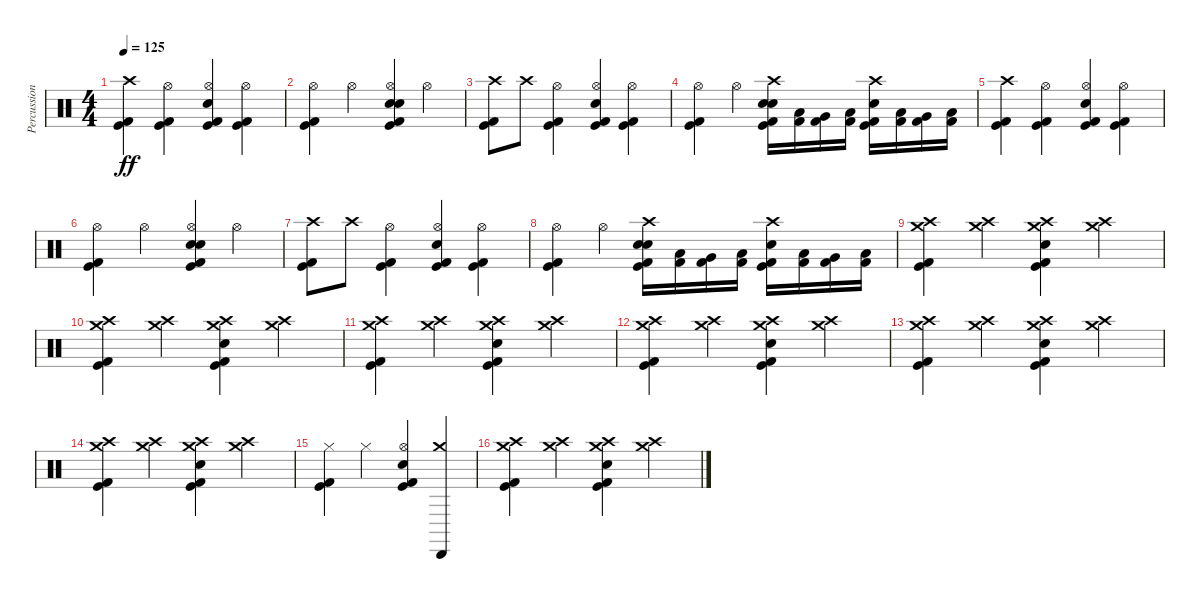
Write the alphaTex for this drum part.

\track ("Percussion" "Percussion") {instrument percussion}
\staff {score}
\articulation defaults
\ts (4 4)
\tempo 125
\clef neutral
\ks c
("Crash high (hit)" "Kick (hit) 2" "Kick (hit)").4{dy ff} ("Hi-Hat (open)" "Kick (hit) 2" "Kick (hit)").4 ("Electric Snare (hit)" "Hi-Hat (open)" "Kick (hit) 2" "Kick (hit)").4 ("Hi-Hat (open)" "Kick (hit) 2" "Kick (hit)").4 |
("Hi-Hat (open)" "Kick (hit) 2" "Kick (hit)").4 "Hi-Hat (open)".4 ("Electric Snare (hit)" "Electric Snare (hit)" "Hi-Hat (open)" "Kick (hit) 2" "Kick (hit)").4 "Hi-Hat (open)".4 |
("Crash high (hit)" "Kick (hit) 2" "Kick (hit)").8 "Crash high (hit)".8 ("Hi-Hat (open)" "Kick (hit) 2" "Kick (hit)").4 ("Electric Snare (hit)" "Hi-Hat (open)" "Kick (hit) 2" "Kick (hit)").4 ("Hi-Hat (open)" "Kick (hit) 2" "Kick (hit)").4 |
("Hi-Hat (open)" "Kick (hit) 2" "Kick (hit)").4 "Hi-Hat (open)".4 ("Electric Snare (hit)" "Electric Snare (hit)" "Crash high (hit)" "Kick (hit) 2" "Kick (hit)").16 ("Low Tom (hit)" "Kick (hit) 2").16 ("Very Low Tom (hit)" "Kick (hit) 2").16 ("Low Floor Tom (hit)" "Kick (hit) 2").16 ("Crash high (hit)" "Electric Snare (hit)" "Kick (hit) 2" "Kick (hit)").16 ("Low Tom (hit)" "Kick (hit) 2").16 ("Very Low Tom (hit)" "Kick (hit) 2").16 ("Low Floor Tom (hit)" "Kick (hit) 2").16 |
("Crash high (hit)" "Kick (hit) 2" "Kick (hit)").4 ("Hi-Hat (open)" "Kick (hit) 2" "Kick (hit)").4 ("Electric Snare (hit)" "Hi-Hat (open)" "Kick (hit) 2" "Kick (hit)").4 ("Hi-Hat (open)" "Kick (hit) 2" "Kick (hit)").4 |
("Hi-Hat (open)" "Kick (hit) 2" "Kick (hit)").4 "Hi-Hat (open)".4 ("Electric Snare (hit)" "Electric Snare (hit)" "Hi-Hat (open)" "Kick (hit) 2" "Kick (hit)").4 "Hi-Hat (open)".4 |
("Crash high (hit)" "Kick (hit) 2" "Kick (hit)").8 "Crash high (hit)".8 ("Hi-Hat (open)" "Kick (hit) 2" "Kick (hit)").4 ("Electric Snare (hit)" "Hi-Hat (open)" "Kick (hit) 2" "Kick (hit)").4 ("Hi-Hat (open)" "Kick (hit) 2" "Kick (hit)").4 |
("Hi-Hat (open)" "Kick (hit) 2" "Kick (hit)").4 "Hi-Hat (open)".4 ("Electric Snare (hit)" "Electric Snare (hit)" "Crash high (hit)" "Kick (hit) 2" "Kick (hit)").16 ("Low Tom (hit)" "Kick (hit) 2").16 ("Very Low Tom (hit)" "Kick (hit) 2").16 ("Low Floor Tom (hit)" "Kick (hit) 2").16 ("Crash high (hit)" "Electric Snare (hit)" "Kick (hit) 2" "Kick (hit)").16 ("Low Tom (hit)" "Kick (hit) 2").16 ("Very Low Tom (hit)" "Kick (hit) 2").16 ("Low Floor Tom (hit)" "Kick (hit) 2").16 |
("Crash medium (hit)" "Crash high (hit)" "Kick (hit) 2" "Kick (hit)").4 ("Crash medium (hit)" "Crash high (hit)").4 ("Crash medium (hit)" "Crash high (hit)" "Electric Snare (hit)" "Kick (hit) 2" "Kick (hit)").4 ("Crash medium (hit)" "Crash high (hit)").4 |
("Crash medium (hit)" "Crash high (hit)" "Kick (hit) 2" "Kick (hit)").4 ("Crash medium (hit)" "Crash high (hit)").4 ("Crash medium (hit)" "Crash high (hit)" "Electric Snare (hit)" "Kick (hit) 2" "Kick (hit)").4 ("Crash medium (hit)" "Crash high (hit)").4 |
("Crash medium (hit)" "Crash high (hit)" "Kick (hit) 2" "Kick (hit)").4 ("Crash medium (hit)" "Crash high (hit)").4 ("Crash medium (hit)" "Crash high (hit)" "Electric Snare (hit)" "Kick (hit) 2" "Kick (hit)").4 ("Crash medium (hit)" "Crash high (hit)").4 |
("Crash medium (hit)" "Crash high (hit)" "Kick (hit) 2" "Kick (hit)").4 ("Crash medium (hit)" "Crash high (hit)").4 ("Crash medium (hit)" "Crash high (hit)" "Electric Snare (hit)" "Kick (hit) 2" "Kick (hit)").4 ("Crash medium (hit)" "Crash high (hit)").4 |
("Crash medium (hit)" "Crash high (hit)" "Kick (hit) 2" "Kick (hit)").4 ("Crash medium (hit)" "Crash high (hit)").4 ("Crash medium (hit)" "Crash high (hit)" "Electric Snare (hit)" "Kick (hit) 2" "Kick (hit)").4 ("Crash medium (hit)" "Crash high (hit)").4 |
("Crash medium (hit)" "Crash high (hit)" "Kick (hit) 2" "Kick (hit)").4 ("Crash medium (hit)" "Crash high (hit)").4 ("Crash medium (hit)" "Crash high (hit)" "Electric Snare (hit)" "Kick (hit) 2" "Kick (hit)").4 ("Crash medium (hit)" "Crash high (hit)").4 |
("Hi-Hat (closed)" "Kick (hit) 2" "Kick (hit)").4 "Hi-Hat (closed)".4 ("Hi-Hat (open)" "Electric Snare (hit)" "Kick (hit) 2" "Kick (hit)").4 ("Crash medium (hit)" "Cabasa (hit)").4 |
("Crash medium (hit)" "Crash high (hit)" "Kick (hit) 2" "Kick (hit)").4 ("Crash medium (hit)" "Crash high (hit)").4 ("Crash medium (hit)" "Crash high (hit)" "Electric Snare (hit)" "Kick (hit) 2" "Kick (hit)").4 ("Crash medium (hit)" "Crash high (hit)").4
